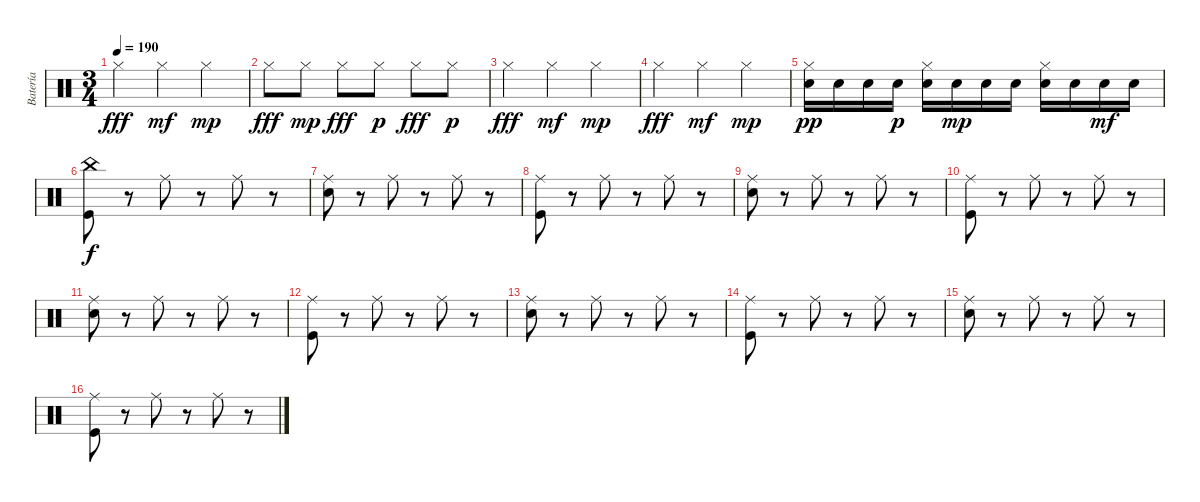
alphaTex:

\track ("Batería" "Batería") {instrument percussion}
\staff {score}
\articulation defaults
\ts (3 4)
\tempo 190
\clef neutral
\ks c "Hi-Hat (closed)".4{dy fff} "Hi-Hat (closed)".4{dy mf} "Hi-Hat (closed)".4{dy mp}
|
"Hi-Hat (closed)".8{dy fff} "Hi-Hat (closed)".8{dy mp} "Hi-Hat (closed)".8{dy fff} "Hi-Hat (closed)".8{dy p} "Hi-Hat (closed)".8{dy fff} "Hi-Hat (closed)".8{dy p} |
"Hi-Hat (closed)".4{dy fff} "Hi-Hat (closed)".4{dy mf} "Hi-Hat (closed)".4{dy mp} |
"Hi-Hat (closed)".4{dy fff} "Hi-Hat (closed)".4{dy mf} "Hi-Hat (closed)".4{dy mp} |
("Hi-Hat (closed)" "Snare (hit) 2").16{dy pp} "Snare (hit) 2".16 "Snare (hit) 2".16 "Snare (hit) 2".16{dy p} ("Hi-Hat (closed)" "Snare (hit) 2").16 "Snare (hit) 2".16{dy mp} "Snare (hit) 2".16 "Snare (hit) 2".16 ("Hi-Hat (closed)" "Snare (hit) 2").16 "Snare (hit) 2".16 "Snare (hit) 2".16{dy mf} "Snare (hit) 2".16 |
("China (hit)" "Kick (hit)").8{dy f} r.8 "Ride (middle)".8 r.8 "Ride (middle)".8 r.8 |
("Snare (hit) 2" "Ride (middle)").8 r.8 "Ride (middle)".8 r.8 "Ride (middle)".8 r.8 |
("Ride (middle)" "Kick (hit)").8 r.8 "Ride (middle)".8 r.8 "Ride (middle)".8 r.8 |
("Snare (hit) 2" "Ride (middle)").8 r.8 "Ride (middle)".8 r.8 "Ride (middle)".8 r.8 |
("Ride (middle)" "Kick (hit)").8 r.8 "Ride (middle)".8 r.8 "Ride (middle)".8 r.8 |
("Snare (hit) 2" "Ride (middle)").8 r.8 "Ride (middle)".8 r.8 "Ride (middle)".8 r.8 |
("Ride (middle)" "Kick (hit)").8 r.8 "Ride (middle)".8 r.8 "Ride (middle)".8 r.8 |
("Snare (hit) 2" "Ride (middle)").8 r.8 "Ride (middle)".8 r.8 "Ride (middle)".8 r.8 |
("Ride (middle)" "Kick (hit)").8 r.8 "Ride (middle)".8 r.8 "Ride (middle)".8 r.8 |
("Snare (hit) 2" "Ride (middle)").8 r.8 "Ride (middle)".8 r.8 "Ride (middle)".8 r.8 |
("Ride (middle)" "Kick (hit)").8 r.8 "Ride (middle)".8 r.8 "Ride (middle)".8 r.8
